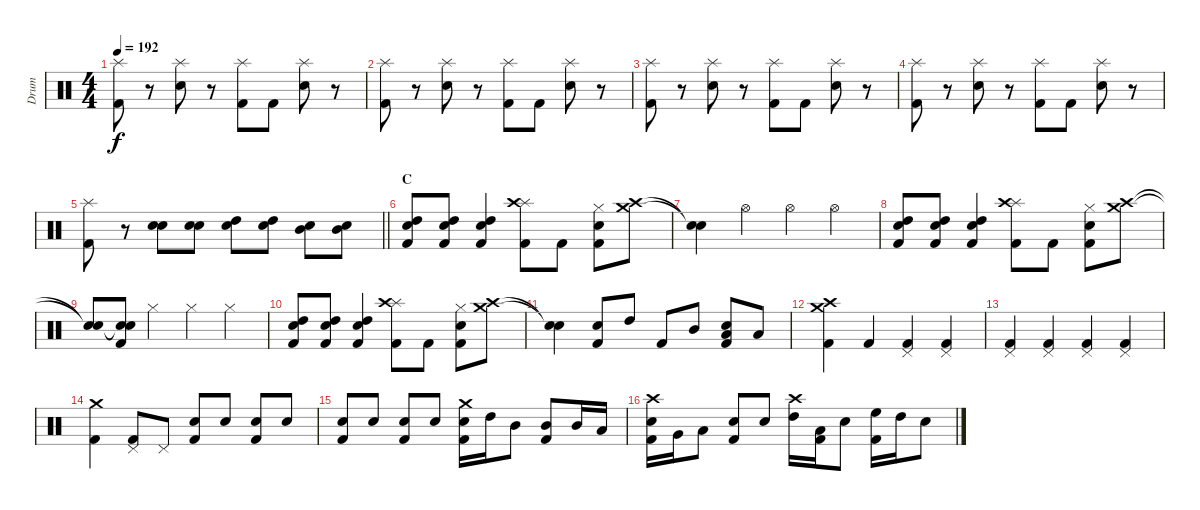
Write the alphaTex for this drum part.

\track ("Drum" "Drum") {instrument percussion}
\staff {score}
\articulation defaults
\ts (4 4)
\tempo 192
\clef neutral
\ks c
("Splash (hit)" "Kick (hit) 2").8{dy f} r.8 ("Splash (hit)" "Electric Snare (hit)").8 r.8 ("Splash (hit)" "Kick (hit) 2").8 "Kick (hit) 2".8 ("Splash (hit)" "Electric Snare (hit)").8 r.8 |
("Splash (hit)" "Kick (hit) 2").8 r.8 ("Splash (hit)" "Electric Snare (hit)").8 r.8 ("Splash (hit)" "Kick (hit) 2").8 "Kick (hit) 2".8 ("Splash (hit)" "Electric Snare (hit)").8 r.8 |
("Splash (hit)" "Kick (hit) 2").8 r.8 ("Splash (hit)" "Electric Snare (hit)").8 r.8 ("Splash (hit)" "Kick (hit) 2").8 "Kick (hit) 2".8 ("Splash (hit)" "Electric Snare (hit)").8 r.8 |
("Splash (hit)" "Kick (hit) 2").8 r.8 ("Splash (hit)" "Electric Snare (hit)").8 r.8 ("Splash (hit)" "Kick (hit) 2").8 "Kick (hit) 2".8 ("Splash (hit)" "Electric Snare (hit)").8 r.8 |
\barLineRight lightlight
("Splash (hit)" "Kick (hit) 2").8 r.8 ("Electric Snare (hit)" "Snare (hit) 2").8 ("Electric Snare (hit)" "Snare (hit) 2").8 ("Electric Snare (hit)" "High Tom (hit)").8 ("Electric Snare (hit)" "High Tom (hit)").8 ("Mid Tom (hit)" "Electric Snare (hit)").8 ("Mid Tom (hit)" "Electric Snare (hit)").8 |
\section ("" "C")
("Electric Snare (hit)" "High Tom (hit)" "Kick (hit) 2").8 ("Electric Snare (hit)" "High Tom (hit)" "Kick (hit) 2").8 ("Electric Snare (hit)" "High Tom (hit)" "Kick (hit) 2").4 ("Splash (hit)" "Crash high (hit)" "Kick (hit) 2").8 "Kick (hit) 2".8 ("Hi-Hat (closed)" "Electric Snare (hit)" "Kick (hit) 2").8 ("Crash high (hit)" "Crash medium (hit)").8 |
("Snare (hit)"{t} "Snare (hit)"{t}).4 "Hi-Hat (open)".4 "Hi-Hat (open)".4 "Hi-Hat (open)".4 |
("Electric Snare (hit)" "High Tom (hit)" "Kick (hit) 2").8 ("Electric Snare (hit)" "High Tom (hit)" "Kick (hit) 2").8 ("Electric Snare (hit)" "High Tom (hit)" "Kick (hit) 2").4 ("Splash (hit)" "Crash high (hit)" "Kick (hit) 2").8 "Kick (hit) 2".8 ("Hi-Hat (closed)" "Electric Snare (hit)" "Kick (hit) 2").8 ("Crash high (hit)" "Crash medium (hit)").8 |
("Snare (hit)"{t} "Snare (hit)"{t}).8 ("Snare (hit)"{t} "Snare (hit)"{t} "Kick (hit) 2").8 "Hi-Hat (closed)".4 "Hi-Hat (closed)".4 "Hi-Hat (closed)".4 |
("Electric Snare (hit)" "High Tom (hit)" "Kick (hit) 2").8 ("Electric Snare (hit)" "High Tom (hit)" "Kick (hit) 2").8 ("Electric Snare (hit)" "High Tom (hit)" "Kick (hit) 2").4 ("Splash (hit)" "Crash high (hit)" "Kick (hit) 2").8 "Kick (hit) 2".8 ("Hi-Hat (closed)" "Electric Snare (hit)" "Kick (hit) 2").8 ("Crash high (hit)" "Crash medium (hit)").8 |
("Snare (hit)"{t} "Snare (hit)"{t}).4 ("Electric Snare (hit)" "Kick (hit) 2").8 "High Tom (hit)".8 "Kick (hit) 2".8 "Mid Tom (hit)".8 ("Electric Snare (hit)" "Low Tom (hit)" "Kick (hit) 2").8 "Low Tom (hit)".8 |
("Crash medium (hit)" "Crash high (hit)" "Kick (hit) 2").4 "Kick (hit) 2".4 ("Pedal Hi-Hat (hit)" "Kick (hit) 2").4 ("Pedal Hi-Hat (hit)" "Kick (hit) 2").4 |
("Pedal Hi-Hat (hit)" "Kick (hit) 2").4 ("Pedal Hi-Hat (hit)" "Kick (hit) 2").4 ("Pedal Hi-Hat (hit)" "Kick (hit) 2").4 ("Pedal Hi-Hat (hit)" "Kick (hit) 2").4 |
("Crash medium (hit)" "Kick (hit) 2").4 ("Pedal Hi-Hat (hit)" "Kick (hit) 2").8 "Pedal Hi-Hat (hit)".8 ("Electric Snare (hit)" "Kick (hit) 2").8 "Electric Snare (hit)".8 ("Electric Snare (hit)" "Kick (hit) 2").8 "Electric Snare (hit)".8 |
("Electric Snare (hit)" "Kick (hit) 2").8 "Electric Snare (hit)".8 ("Electric Snare (hit)" "Kick (hit) 2").8 "Electric Snare (hit)".8 ("Crash medium (hit)" "Electric Snare (hit)" "Kick (hit) 2").16 "High Tom (hit)".16 "Mid Tom (hit)".8 ("Mid Tom (hit)" "Kick (hit) 2").8 "Mid Tom (hit)".16 "Low Tom (hit)".16 |
("Crash high (hit)" "Electric Snare (hit)" "Kick (hit) 2").16 "Very Low Tom (hit)".16 "Low Floor Tom (hit)".8 ("Electric Snare (hit)" "Kick (hit) 2").8 "Electric Snare (hit)".8 ("Crash high (hit)" "High Tom (hit)").16 ("Low Tom (hit)" "Kick (hit) 2").16 "Electric Snare (hit)".8 ("High Floor Tom (hit)" "Kick (hit) 2").16 "High Tom (hit)".16 "Electric Snare (hit)".8
